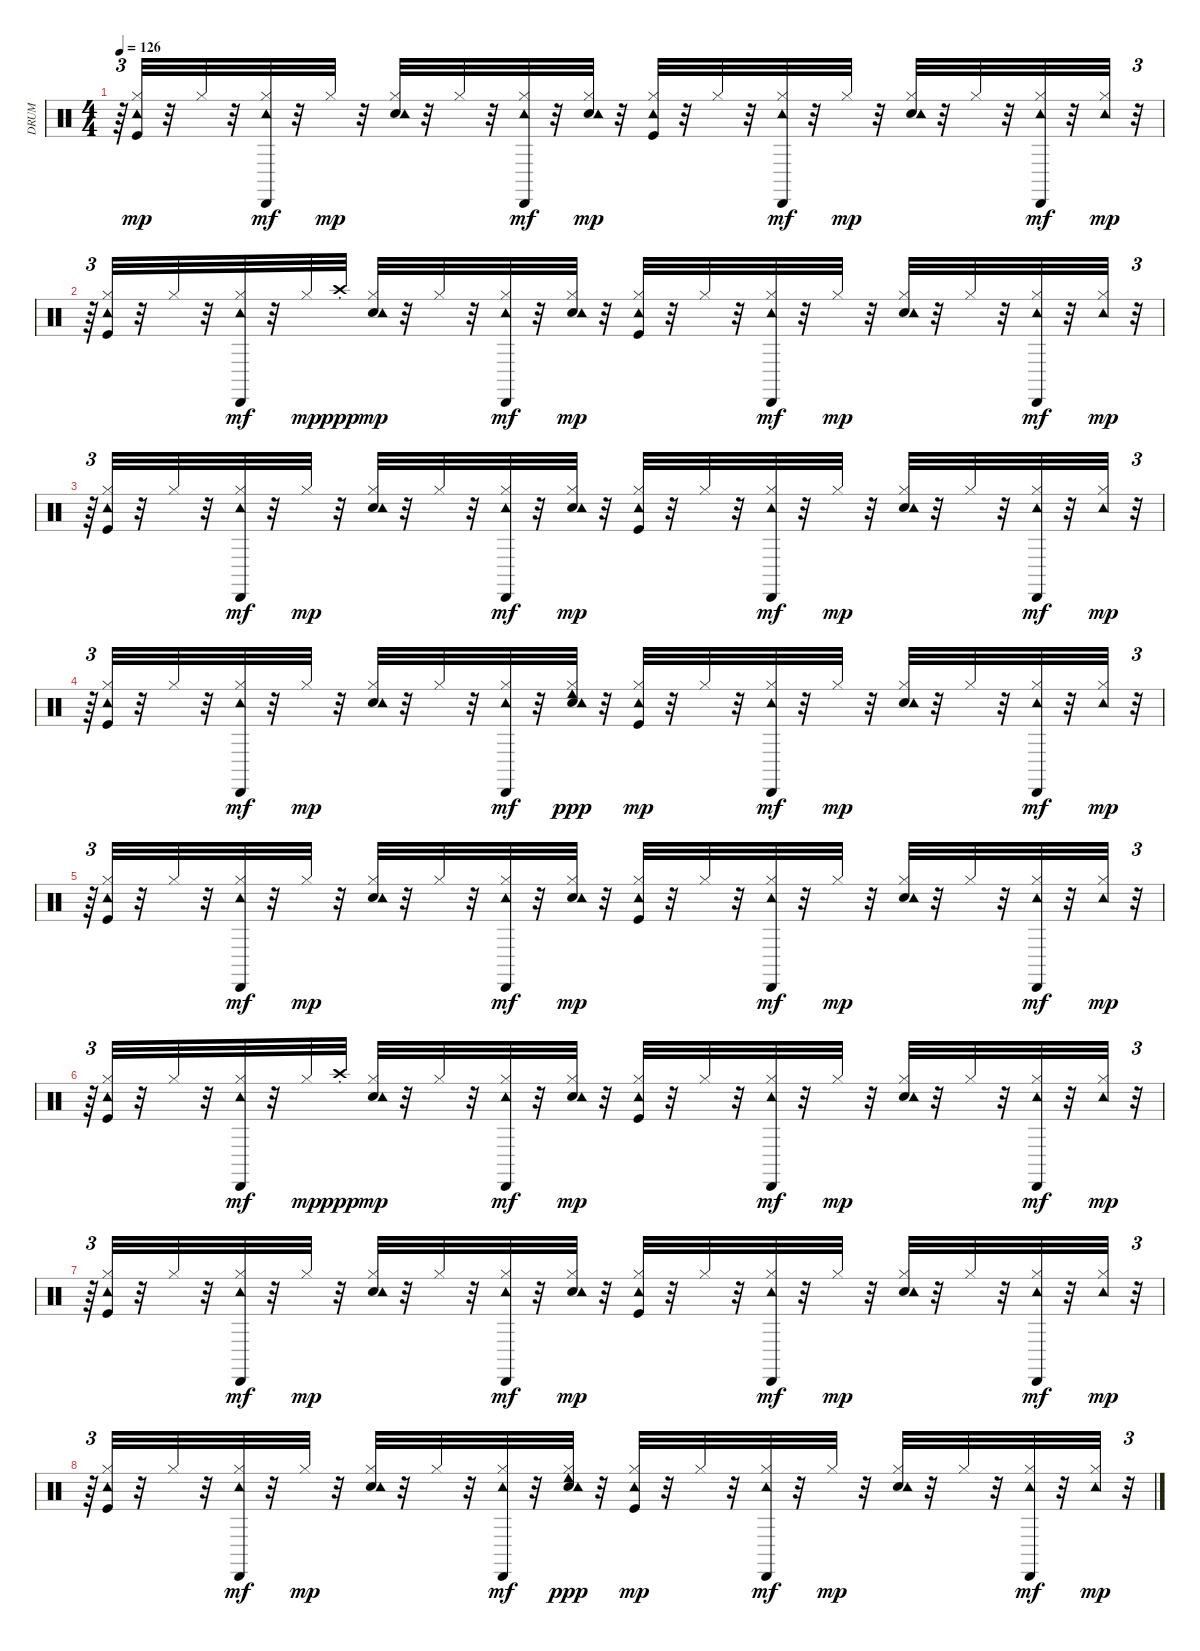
\track ("DRUM" "DRUM") {instrument percussion}
\staff {score}
\articulation defaults
\ts (4 4)
\tempo 126
\clef neutral
\ks c
r.64{tu (3 2) dy mp} ("Kick (hit)" "Hi-Hat (closed)" "Tambourine (hit)").32 r.32 "Hi-Hat (closed)".32 r.32 ("Hi-Hat (closed)" "Tambourine (hit)" "Cabasa (hit)").32{dy mf} r.32 "Hi-Hat (closed)".32{dy mp} r.32 ("Snare (hit) 2" "Hi-Hat (closed)" "Tambourine (hit)").32 r.32 "Hi-Hat (closed)".32 r.32 ("Hi-Hat (closed)" "Tambourine (hit)" "Cabasa (hit)").32{dy mf} r.32 ("Snare (hit) 2" "Hi-Hat (closed)" "Tambourine (hit)").32{dy mp} r.32 ("Kick (hit)" "Hi-Hat (closed)" "Tambourine (hit)").32 r.32 "Hi-Hat (closed)".32 r.32 ("Hi-Hat (closed)" "Tambourine (hit)" "Cabasa (hit)").32{dy mf} r.32 "Hi-Hat (closed)".32{dy mp} r.32 ("Snare (hit) 2" "Hi-Hat (closed)" "Tambourine (hit)").32 r.32 "Hi-Hat (closed)".32 r.32 ("Hi-Hat (closed)" "Tambourine (hit)" "Cabasa (hit)").32{dy mf} r.32 ("Hi-Hat (closed)" "Tambourine (hit)").32{dy mp} r.32{tu (3 2)} |
r.64{tu (3 2)} ("Kick (hit)" "Hi-Hat (closed)" "Tambourine (hit)").32 r.32 "Hi-Hat (closed)".32 r.32 ("Hi-Hat (closed)" "Tambourine (hit)" "Cabasa (hit)").32{dy mf} r.32 "Hi-Hat (closed)".32{dy mp} "Crash high (choke)".32{dy ppp} ("Snare (hit) 2" "Hi-Hat (closed)" "Tambourine (hit)").32{dy mp} r.32 "Hi-Hat (closed)".32 r.32 ("Hi-Hat (closed)" "Tambourine (hit)" "Cabasa (hit)").32{dy mf} r.32 ("Snare (hit) 2" "Hi-Hat (closed)" "Tambourine (hit)").32{dy mp} r.32 ("Kick (hit)" "Hi-Hat (closed)" "Tambourine (hit)").32 r.32 "Hi-Hat (closed)".32 r.32 ("Hi-Hat (closed)" "Tambourine (hit)" "Cabasa (hit)").32{dy mf} r.32 "Hi-Hat (closed)".32{dy mp} r.32 ("Snare (hit) 2" "Hi-Hat (closed)" "Tambourine (hit)").32 r.32 "Hi-Hat (closed)".32 r.32 ("Hi-Hat (closed)" "Tambourine (hit)" "Cabasa (hit)").32{dy mf} r.32 ("Hi-Hat (closed)" "Tambourine (hit)").32{dy mp} r.32{tu (3 2)} |
r.64{tu (3 2)} ("Kick (hit)" "Hi-Hat (closed)" "Tambourine (hit)").32 r.32 "Hi-Hat (closed)".32 r.32 ("Hi-Hat (closed)" "Tambourine (hit)" "Cabasa (hit)").32{dy mf} r.32 "Hi-Hat (closed)".32{dy mp} r.32 ("Snare (hit) 2" "Hi-Hat (closed)" "Tambourine (hit)").32 r.32 "Hi-Hat (closed)".32 r.32 ("Hi-Hat (closed)" "Tambourine (hit)" "Cabasa (hit)").32{dy mf} r.32 ("Snare (hit) 2" "Hi-Hat (closed)" "Tambourine (hit)").32{dy mp} r.32 ("Kick (hit)" "Hi-Hat (closed)" "Tambourine (hit)").32 r.32 "Hi-Hat (closed)".32 r.32 ("Hi-Hat (closed)" "Tambourine (hit)" "Cabasa (hit)").32{dy mf} r.32 "Hi-Hat (closed)".32{dy mp} r.32 ("Snare (hit) 2" "Hi-Hat (closed)" "Tambourine (hit)").32 r.32 "Hi-Hat (closed)".32 r.32 ("Hi-Hat (closed)" "Tambourine (hit)" "Cabasa (hit)").32{dy mf} r.32 ("Hi-Hat (closed)" "Tambourine (hit)").32{dy mp} r.32{tu (3 2)} |
r.64{tu (3 2)} ("Kick (hit)" "Hi-Hat (closed)" "Tambourine (hit)").32 r.32 "Hi-Hat (closed)".32 r.32 ("Hi-Hat (closed)" "Tambourine (hit)" "Cabasa (hit)").32{dy mf} r.32 "Hi-Hat (closed)".32{dy mp} r.32 ("Snare (hit) 2" "Hi-Hat (closed)" "Tambourine (hit)").32 r.32 "Hi-Hat (closed)".32 r.32 ("Hi-Hat (closed)" "Tambourine (hit)" "Cabasa (hit)").32{dy mf} r.32 ("Snare (hit) 2" "Hi-Hat (closed)" "Tambourine (hit)" "Cowbell low (hit)").32{dy ppp} r.32 ("Kick (hit)" "Hi-Hat (closed)" "Tambourine (hit)").32{dy mp} r.32 "Hi-Hat (closed)".32 r.32 ("Hi-Hat (closed)" "Tambourine (hit)" "Cabasa (hit)").32{dy mf} r.32 "Hi-Hat (closed)".32{dy mp} r.32 ("Snare (hit) 2" "Hi-Hat (closed)" "Tambourine (hit)").32 r.32 "Hi-Hat (closed)".32 r.32 ("Hi-Hat (closed)" "Tambourine (hit)" "Cabasa (hit)").32{dy mf} r.32 ("Hi-Hat (closed)" "Tambourine (hit)").32{dy mp} r.32{tu (3 2)} |
r.64{tu (3 2)} ("Kick (hit)" "Hi-Hat (closed)" "Tambourine (hit)").32 r.32 "Hi-Hat (closed)".32 r.32 ("Hi-Hat (closed)" "Tambourine (hit)" "Cabasa (hit)").32{dy mf} r.32 "Hi-Hat (closed)".32{dy mp} r.32 ("Snare (hit) 2" "Hi-Hat (closed)" "Tambourine (hit)").32 r.32 "Hi-Hat (closed)".32 r.32 ("Hi-Hat (closed)" "Tambourine (hit)" "Cabasa (hit)").32{dy mf} r.32 ("Snare (hit) 2" "Hi-Hat (closed)" "Tambourine (hit)").32{dy mp} r.32 ("Kick (hit)" "Hi-Hat (closed)" "Tambourine (hit)").32 r.32 "Hi-Hat (closed)".32 r.32 ("Hi-Hat (closed)" "Tambourine (hit)" "Cabasa (hit)").32{dy mf} r.32 "Hi-Hat (closed)".32{dy mp} r.32 ("Snare (hit) 2" "Hi-Hat (closed)" "Tambourine (hit)").32 r.32 "Hi-Hat (closed)".32 r.32 ("Hi-Hat (closed)" "Tambourine (hit)" "Cabasa (hit)").32{dy mf} r.32 ("Hi-Hat (closed)" "Tambourine (hit)").32{dy mp} r.32{tu (3 2)} |
r.64{tu (3 2)} ("Kick (hit)" "Hi-Hat (closed)" "Tambourine (hit)").32 r.32 "Hi-Hat (closed)".32 r.32 ("Hi-Hat (closed)" "Tambourine (hit)" "Cabasa (hit)").32{dy mf} r.32 "Hi-Hat (closed)".32{dy mp} "Crash high (choke)".32{dy ppp} ("Snare (hit) 2" "Hi-Hat (closed)" "Tambourine (hit)").32{dy mp} r.32 "Hi-Hat (closed)".32 r.32 ("Hi-Hat (closed)" "Tambourine (hit)" "Cabasa (hit)").32{dy mf} r.32 ("Snare (hit) 2" "Hi-Hat (closed)" "Tambourine (hit)").32{dy mp} r.32 ("Kick (hit)" "Hi-Hat (closed)" "Tambourine (hit)").32 r.32 "Hi-Hat (closed)".32 r.32 ("Hi-Hat (closed)" "Tambourine (hit)" "Cabasa (hit)").32{dy mf} r.32 "Hi-Hat (closed)".32{dy mp} r.32 ("Snare (hit) 2" "Hi-Hat (closed)" "Tambourine (hit)").32 r.32 "Hi-Hat (closed)".32 r.32 ("Hi-Hat (closed)" "Tambourine (hit)" "Cabasa (hit)").32{dy mf} r.32 ("Hi-Hat (closed)" "Tambourine (hit)").32{dy mp} r.32{tu (3 2)} |
r.64{tu (3 2)} ("Kick (hit)" "Hi-Hat (closed)" "Tambourine (hit)").32 r.32 "Hi-Hat (closed)".32 r.32 ("Hi-Hat (closed)" "Tambourine (hit)" "Cabasa (hit)").32{dy mf} r.32 "Hi-Hat (closed)".32{dy mp} r.32 ("Snare (hit) 2" "Hi-Hat (closed)" "Tambourine (hit)").32 r.32 "Hi-Hat (closed)".32 r.32 ("Hi-Hat (closed)" "Tambourine (hit)" "Cabasa (hit)").32{dy mf} r.32 ("Snare (hit) 2" "Hi-Hat (closed)" "Tambourine (hit)").32{dy mp} r.32 ("Kick (hit)" "Hi-Hat (closed)" "Tambourine (hit)").32 r.32 "Hi-Hat (closed)".32 r.32 ("Hi-Hat (closed)" "Tambourine (hit)" "Cabasa (hit)").32{dy mf} r.32 "Hi-Hat (closed)".32{dy mp} r.32 ("Snare (hit) 2" "Hi-Hat (closed)" "Tambourine (hit)").32 r.32 "Hi-Hat (closed)".32 r.32 ("Hi-Hat (closed)" "Tambourine (hit)" "Cabasa (hit)").32{dy mf} r.32 ("Hi-Hat (closed)" "Tambourine (hit)").32{dy mp} r.32{tu (3 2)} |
r.64{tu (3 2)} ("Kick (hit)" "Hi-Hat (closed)" "Tambourine (hit)").32 r.32 "Hi-Hat (closed)".32 r.32 ("Hi-Hat (closed)" "Tambourine (hit)" "Cabasa (hit)").32{dy mf} r.32 "Hi-Hat (closed)".32{dy mp} r.32 ("Snare (hit) 2" "Hi-Hat (closed)" "Tambourine (hit)").32 r.32 "Hi-Hat (closed)".32 r.32 ("Hi-Hat (closed)" "Tambourine (hit)" "Cabasa (hit)").32{dy mf} r.32 ("Snare (hit) 2" "Hi-Hat (closed)" "Tambourine (hit)" "Cowbell low (hit)").32{dy ppp} r.32 ("Kick (hit)" "Hi-Hat (closed)" "Tambourine (hit)").32{dy mp} r.32 "Hi-Hat (closed)".32 r.32 ("Hi-Hat (closed)" "Tambourine (hit)" "Cabasa (hit)").32{dy mf} r.32 "Hi-Hat (closed)".32{dy mp} r.32 ("Snare (hit) 2" "Hi-Hat (closed)" "Tambourine (hit)").32 r.32 "Hi-Hat (closed)".32 r.32 ("Hi-Hat (closed)" "Tambourine (hit)" "Cabasa (hit)").32{dy mf} r.32 ("Hi-Hat (closed)" "Tambourine (hit)").32{dy mp} r.32{tu (3 2)}
